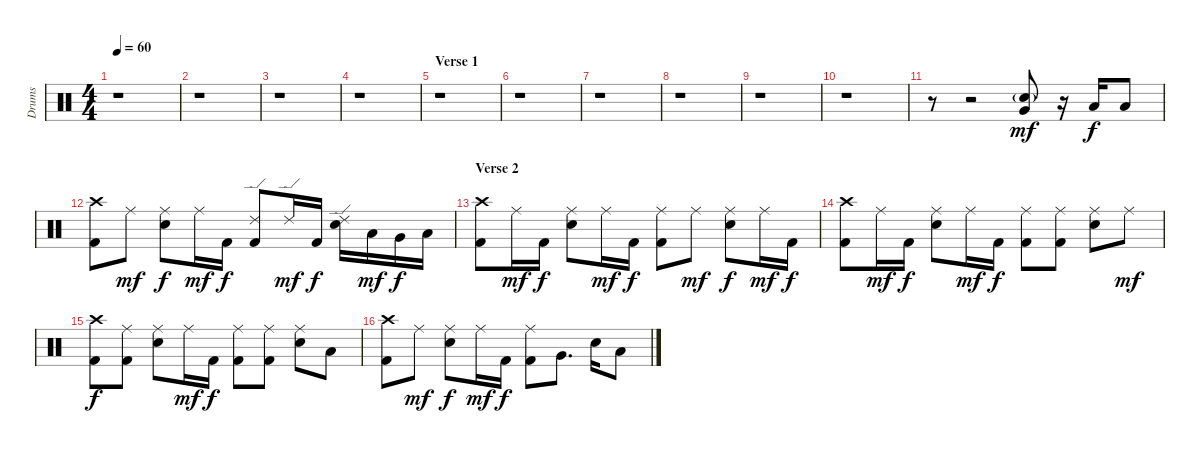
\track ("Drums" "Drums") {instrument percussion}
\staff {score}
\articulation defaults
\ts (4 4)
\tempo 60
\clef neutral
\ks c
r.1{dy mf} |
r.1 |
r.1 |
r.1 |
\section ("" "Verse 1")
r.1 |
r.1 |
r.1 |
r.1 |
r.1 |
r.1 |
r.8 r.2 ("Very Low Tom (hit)" "Snare (hit) 2"{g}).8 r.16 "Low Floor Tom (hit)".16{dy f} "Low Floor Tom (hit)".8 |
("Crash high (hit)" "Kick (hit) 2").8 "Ride (middle)".8{dy mf} ("Ride (middle)" "Electric Snare (hit)").8{dy f} "Ride (middle)".16{dy mf} "Kick (hit) 2".16{dy f} ("Ride (edge) 2" "Kick (hit) 2").8 "Ride (edge) 2".16{dy mf} "Kick (hit) 2".16{dy f} ("Ride (edge) 2" "Electric Snare (hit)").16 "Low Tom (hit)".16{dy mf} "Very Low Tom (hit)".16{dy f} "Low Floor Tom (hit)".16 |
\section ("" "Verse 2")
("Crash high (hit)" "Kick (hit) 2").8 "Ride (middle)".16{dy mf} "Kick (hit) 2".16{dy f} ("Ride (middle)" "Electric Snare (hit)").8 "Ride (middle)".16{dy mf} "Kick (hit) 2".16{dy f} ("Ride (middle)" "Kick (hit) 2").8 "Ride (middle)".8{dy mf} ("Ride (middle)" "Electric Snare (hit)").8{dy f} "Ride (middle)".16{dy mf} "Kick (hit) 2".16{dy f} |
("Crash high (hit)" "Kick (hit) 2").8 "Ride (middle)".16{dy mf} "Kick (hit) 2".16{dy f} ("Ride (middle)" "Electric Snare (hit)").8 "Ride (middle)".16{dy mf} "Kick (hit) 2".16{dy f} ("Ride (middle)" "Kick (hit) 2").8 ("Ride (middle)" "Kick (hit) 2").8 ("Ride (middle)" "Electric Snare (hit)").8 "Ride (middle)".8{dy mf} |
("Crash high (hit)" "Kick (hit) 2").8{dy f} ("Ride (middle)" "Kick (hit) 2").8 ("Ride (middle)" "Electric Snare (hit)").8 "Ride (middle)".16{dy mf} "Kick (hit) 2".16{dy f} ("Ride (middle)" "Kick (hit) 2").8 ("Ride (middle)" "Kick (hit) 2").8 ("Ride (middle)" "Electric Snare (hit)").8 "Low Floor Tom (hit)".8 |
("Crash high (hit)" "Kick (hit) 2").8 "Ride (middle)".8{dy mf} ("Ride (middle)" "Electric Snare (hit)").8{dy f} "Ride (middle)".16{dy mf} "Kick (hit) 2".16{dy f} ("Ride (middle)" "Kick (hit) 2").8 "Very Low Tom (hit)".8{d} "Electric Snare (hit)".16 "Low Floor Tom (hit)".8
